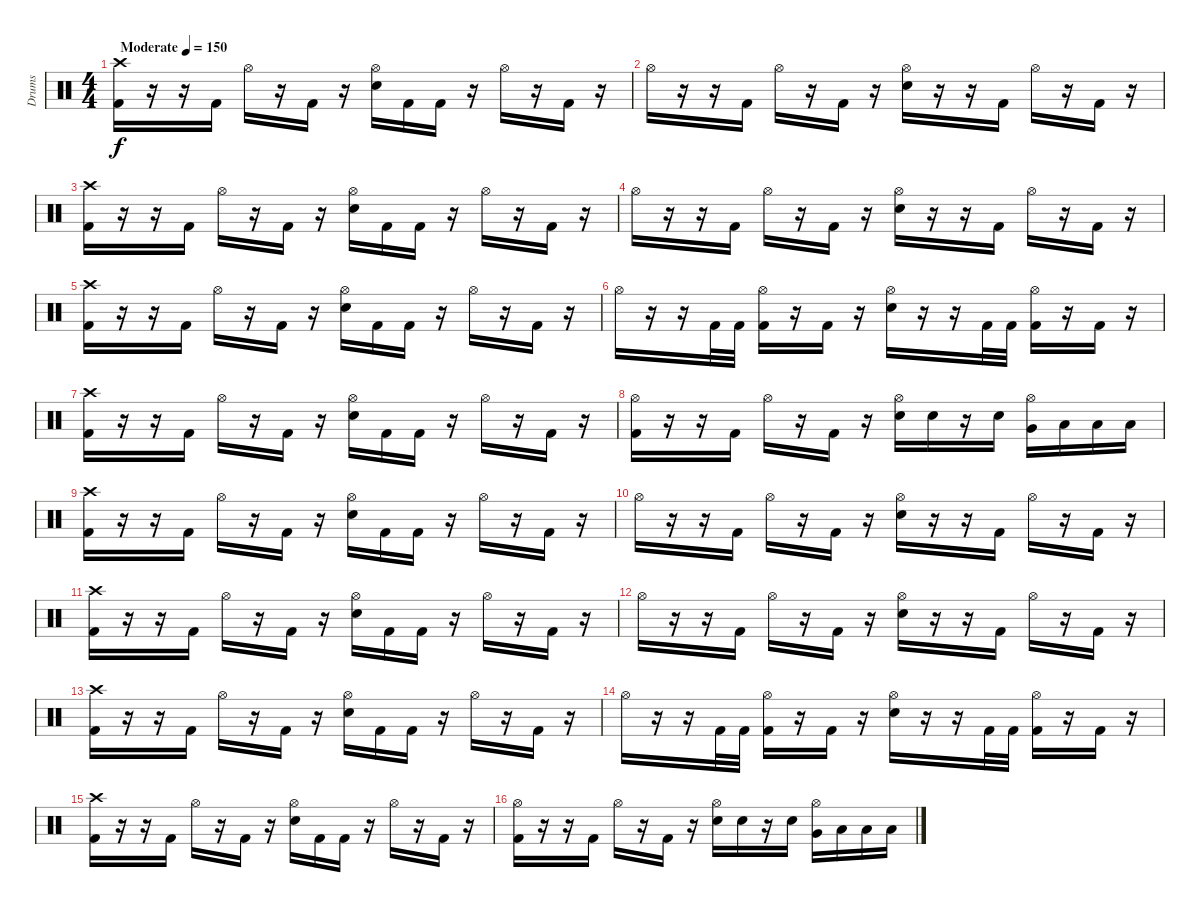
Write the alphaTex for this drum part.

\track ("Drums" "Drums") {instrument percussion}
\staff {score}
\articulation defaults
\ts (4 4)
\tempo (150 "Moderate")
\clef neutral
\ks c
("Crash high (hit)" "Kick (hit) 2").16{dy f} r.16 r.16 "Kick (hit) 2".16 "Hi-Hat (open)".16 r.16 "Kick (hit) 2".16 r.16 ("Hi-Hat (open)" "Snare (hit) 2").16 "Kick (hit) 2".16 "Kick (hit) 2".16 r.16 "Hi-Hat (open)".16 r.16 "Kick (hit) 2".16 r.16 |
"Hi-Hat (open)".16 r.16 r.16 "Kick (hit) 2".16 "Hi-Hat (open)".16 r.16 "Kick (hit) 2".16 r.16 ("Hi-Hat (open)" "Snare (hit) 2").16 r.16 r.16 "Kick (hit) 2".16 "Hi-Hat (open)".16 r.16 "Kick (hit) 2".16 r.16 |
("Crash high (hit)" "Kick (hit) 2").16 r.16 r.16 "Kick (hit) 2".16 "Hi-Hat (open)".16 r.16 "Kick (hit) 2".16 r.16 ("Hi-Hat (open)" "Snare (hit) 2").16 "Kick (hit) 2".16 "Kick (hit) 2".16 r.16 "Hi-Hat (open)".16 r.16 "Kick (hit) 2".16 r.16 |
"Hi-Hat (open)".16 r.16 r.16 "Kick (hit) 2".16 "Hi-Hat (open)".16 r.16 "Kick (hit) 2".16 r.16 ("Hi-Hat (open)" "Snare (hit) 2").16 r.16 r.16 "Kick (hit) 2".16 "Hi-Hat (open)".16 r.16 "Kick (hit) 2".16 r.16 |
("Crash high (hit)" "Kick (hit) 2").16 r.16 r.16 "Kick (hit) 2".16 "Hi-Hat (open)".16 r.16 "Kick (hit) 2".16 r.16 ("Hi-Hat (open)" "Snare (hit) 2").16 "Kick (hit) 2".16 "Kick (hit) 2".16 r.16 "Hi-Hat (open)".16 r.16 "Kick (hit) 2".16 r.16 |
"Hi-Hat (open)".16 r.16 r.16 "Kick (hit) 2".32 "Kick (hit) 2".32 ("Hi-Hat (open)" "Kick (hit) 2").16 r.16 "Kick (hit) 2".16 r.16 ("Hi-Hat (open)" "Snare (hit) 2").16 r.16 r.16 "Kick (hit) 2".32 "Kick (hit) 2".32 ("Hi-Hat (open)" "Kick (hit) 2").16 r.16 "Kick (hit) 2".16 r.16 |
("Crash high (hit)" "Kick (hit) 2").16 r.16 r.16 "Kick (hit) 2".16 "Hi-Hat (open)".16 r.16 "Kick (hit) 2".16 r.16 ("Hi-Hat (open)" "Snare (hit) 2").16 "Kick (hit) 2".16 "Kick (hit) 2".16 r.16 "Hi-Hat (open)".16 r.16 "Kick (hit) 2".16 r.16 |
("Hi-Hat (open)" "Kick (hit) 2").16 r.16 r.16 "Kick (hit) 2".16 "Hi-Hat (open)".16 r.16 "Kick (hit) 2".16 r.16 ("Hi-Hat (open)" "Snare (hit) 2").16 "Snare (hit) 2".16 r.16 "Snare (hit) 2".16 ("Hi-Hat (open)" "Very Low Tom (hit)").16 "Low Floor Tom (hit)".16 "Low Floor Tom (hit)".16 "Low Floor Tom (hit)".16 |
("Crash high (hit)" "Kick (hit) 2").16 r.16 r.16 "Kick (hit) 2".16 "Hi-Hat (open)".16 r.16 "Kick (hit) 2".16 r.16 ("Hi-Hat (open)" "Snare (hit) 2").16 "Kick (hit) 2".16 "Kick (hit) 2".16 r.16 "Hi-Hat (open)".16 r.16 "Kick (hit) 2".16 r.16 |
"Hi-Hat (open)".16 r.16 r.16 "Kick (hit) 2".16 "Hi-Hat (open)".16 r.16 "Kick (hit) 2".16 r.16 ("Hi-Hat (open)" "Snare (hit) 2").16 r.16 r.16 "Kick (hit) 2".16 "Hi-Hat (open)".16 r.16 "Kick (hit) 2".16 r.16 |
("Crash high (hit)" "Kick (hit) 2").16 r.16 r.16 "Kick (hit) 2".16 "Hi-Hat (open)".16 r.16 "Kick (hit) 2".16 r.16 ("Hi-Hat (open)" "Snare (hit) 2").16 "Kick (hit) 2".16 "Kick (hit) 2".16 r.16 "Hi-Hat (open)".16 r.16 "Kick (hit) 2".16 r.16 |
"Hi-Hat (open)".16 r.16 r.16 "Kick (hit) 2".16 "Hi-Hat (open)".16 r.16 "Kick (hit) 2".16 r.16 ("Hi-Hat (open)" "Snare (hit) 2").16 r.16 r.16 "Kick (hit) 2".16 "Hi-Hat (open)".16 r.16 "Kick (hit) 2".16 r.16 |
("Crash high (hit)" "Kick (hit) 2").16 r.16 r.16 "Kick (hit) 2".16 "Hi-Hat (open)".16 r.16 "Kick (hit) 2".16 r.16 ("Hi-Hat (open)" "Snare (hit) 2").16 "Kick (hit) 2".16 "Kick (hit) 2".16 r.16 "Hi-Hat (open)".16 r.16 "Kick (hit) 2".16 r.16 |
"Hi-Hat (open)".16 r.16 r.16 "Kick (hit) 2".32 "Kick (hit) 2".32 ("Hi-Hat (open)" "Kick (hit) 2").16 r.16 "Kick (hit) 2".16 r.16 ("Hi-Hat (open)" "Snare (hit) 2").16 r.16 r.16 "Kick (hit) 2".32 "Kick (hit) 2".32 ("Hi-Hat (open)" "Kick (hit) 2").16 r.16 "Kick (hit) 2".16 r.16 |
("Crash high (hit)" "Kick (hit) 2").16 r.16 r.16 "Kick (hit) 2".16 "Hi-Hat (open)".16 r.16 "Kick (hit) 2".16 r.16 ("Hi-Hat (open)" "Snare (hit) 2").16 "Kick (hit) 2".16 "Kick (hit) 2".16 r.16 "Hi-Hat (open)".16 r.16 "Kick (hit) 2".16 r.16 |
("Hi-Hat (open)" "Kick (hit) 2").16 r.16 r.16 "Kick (hit) 2".16 "Hi-Hat (open)".16 r.16 "Kick (hit) 2".16 r.16 ("Hi-Hat (open)" "Snare (hit) 2").16 "Snare (hit) 2".16 r.16 "Snare (hit) 2".16 ("Hi-Hat (open)" "Very Low Tom (hit)").16 "Low Floor Tom (hit)".16 "Low Floor Tom (hit)".16 "Low Floor Tom (hit)".16
